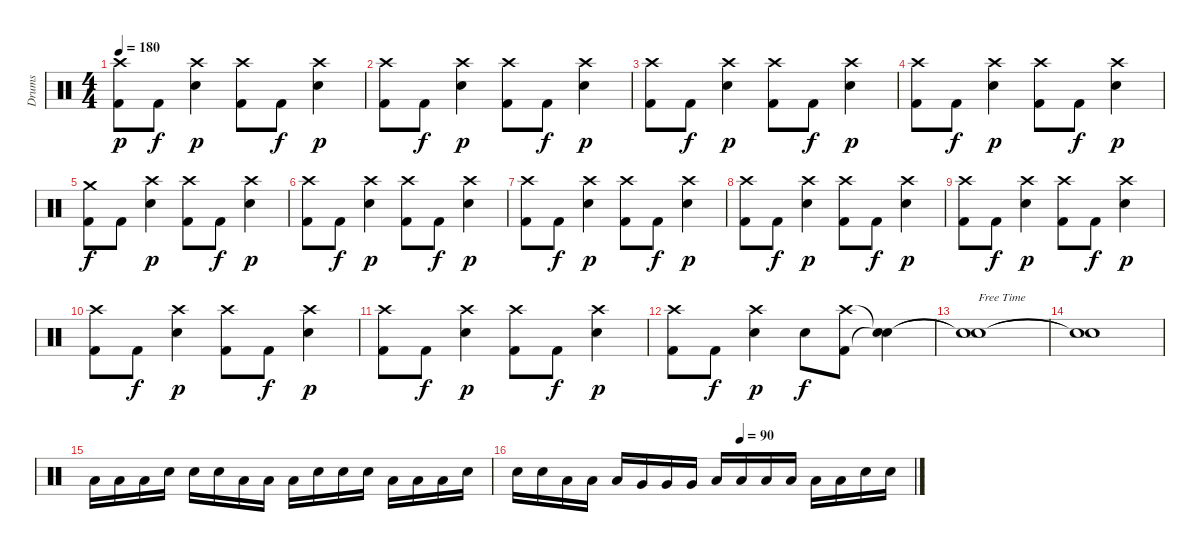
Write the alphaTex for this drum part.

\track ("Drums" "Drums") {instrument percussion}
\staff {score}
\articulation defaults
\ts (4 4)
\tempo 180
\clef neutral
\ks c
("Crash high (hit)" "Kick (hit) 2").8{dy p} "Kick (hit) 2".8{dy f} ("Crash high (hit)" "Electric Snare (hit)").4{dy p} ("Crash high (hit)" "Kick (hit) 2").8 "Kick (hit) 2".8{dy f} ("Crash high (hit)" "Electric Snare (hit)").4{dy p} |
("Crash high (hit)" "Kick (hit) 2").8 "Kick (hit) 2".8{dy f} ("Crash high (hit)" "Electric Snare (hit)").4{dy p} ("Crash high (hit)" "Kick (hit) 2").8 "Kick (hit) 2".8{dy f} ("Crash high (hit)" "Electric Snare (hit)").4{dy p} |
("Crash high (hit)" "Kick (hit) 2").8 "Kick (hit) 2".8{dy f} ("Crash high (hit)" "Electric Snare (hit)").4{dy p} ("Crash high (hit)" "Kick (hit) 2").8 "Kick (hit) 2".8{dy f} ("Crash high (hit)" "Electric Snare (hit)").4{dy p} |
("Crash high (hit)" "Kick (hit) 2").8 "Kick (hit) 2".8{dy f} ("Crash high (hit)" "Electric Snare (hit)").4{dy p} ("Crash high (hit)" "Kick (hit) 2").8 "Kick (hit) 2".8{dy f} ("Crash high (hit)" "Electric Snare (hit)").4{dy p} |
("Crash medium (hit)" "Kick (hit) 2").8{dy f} "Kick (hit) 2".8 ("Crash high (hit)" "Electric Snare (hit)").4{dy p} ("Crash high (hit)" "Kick (hit) 2").8 "Kick (hit) 2".8{dy f} ("Crash high (hit)" "Electric Snare (hit)").4{dy p} |
("Crash high (hit)" "Kick (hit) 2").8 "Kick (hit) 2".8{dy f} ("Crash high (hit)" "Electric Snare (hit)").4{dy p} ("Crash high (hit)" "Kick (hit) 2").8 "Kick (hit) 2".8{dy f} ("Crash high (hit)" "Electric Snare (hit)").4{dy p} |
("Crash high (hit)" "Kick (hit) 2").8 "Kick (hit) 2".8{dy f} ("Crash high (hit)" "Electric Snare (hit)").4{dy p} ("Crash high (hit)" "Kick (hit) 2").8 "Kick (hit) 2".8{dy f} ("Crash high (hit)" "Electric Snare (hit)").4{dy p} |
("Crash high (hit)" "Kick (hit) 2").8 "Kick (hit) 2".8{dy f} ("Crash high (hit)" "Electric Snare (hit)").4{dy p} ("Crash high (hit)" "Kick (hit) 2").8 "Kick (hit) 2".8{dy f} ("Crash high (hit)" "Electric Snare (hit)").4{dy p} |
("Crash high (hit)" "Kick (hit) 2").8 "Kick (hit) 2".8{dy f} ("Crash high (hit)" "Electric Snare (hit)").4{dy p} ("Crash high (hit)" "Kick (hit) 2").8 "Kick (hit) 2".8{dy f} ("Crash high (hit)" "Electric Snare (hit)").4{dy p} |
("Crash high (hit)" "Kick (hit) 2").8 "Kick (hit) 2".8{dy f} ("Crash high (hit)" "Electric Snare (hit)").4{dy p} ("Crash high (hit)" "Kick (hit) 2").8 "Kick (hit) 2".8{dy f} ("Crash high (hit)" "Electric Snare (hit)").4{dy p} |
("Crash high (hit)" "Kick (hit) 2").8 "Kick (hit) 2".8{dy f} ("Crash high (hit)" "Electric Snare (hit)").4{dy p} ("Crash high (hit)" "Kick (hit) 2").8 "Kick (hit) 2".8{dy f} ("Crash high (hit)" "Electric Snare (hit)").4{dy p} |
("Crash high (hit)" "Kick (hit) 2").8 "Kick (hit) 2".8{dy f} ("Crash high (hit)" "Electric Snare (hit)").4{dy p} "Electric Snare (hit)".8{dy f} ("Crash high (hit)" "Kick (hit) 2").8 ("Snare (hit)"{t} "Snare (hit)"{t}).4 |
("Snare (hit)"{t} "Snare (hit)"{t}).1{txt "Free Time"} |
("Snare (hit)"{t} "Snare (hit)"{t}).1 |
"Low Tom (hit)".16 "Low Tom (hit)".16 "Low Tom (hit)".16 "Electric Snare (hit)".16 "Electric Snare (hit)".16 "Electric Snare (hit)".16 "Low Tom (hit)".16 "Low Tom (hit)".16 "Low Tom (hit)".16 "Electric Snare (hit)".16 "Electric Snare (hit)".16 "Electric Snare (hit)".16 "Low Tom (hit)".16 "Low Tom (hit)".16 "Low Tom (hit)".16 "Electric Snare (hit)".16 |
\tempo (90 0.5625)
"Electric Snare (hit)".16 "Electric Snare (hit)".16 "Low Tom (hit)".16 "Low Tom (hit)".16 "Low Tom (hit)".16 "Very Low Tom (hit)".16 "Very Low Tom (hit)".16 "Very Low Tom (hit)".16 "Low Floor Tom (hit)".16 "Low Floor Tom (hit)".16 "Low Floor Tom (hit)".16 "Low Tom (hit)".16 "Low Tom (hit)".16 "Low Tom (hit)".16 "Electric Snare (hit)".16 "Electric Snare (hit)".16
